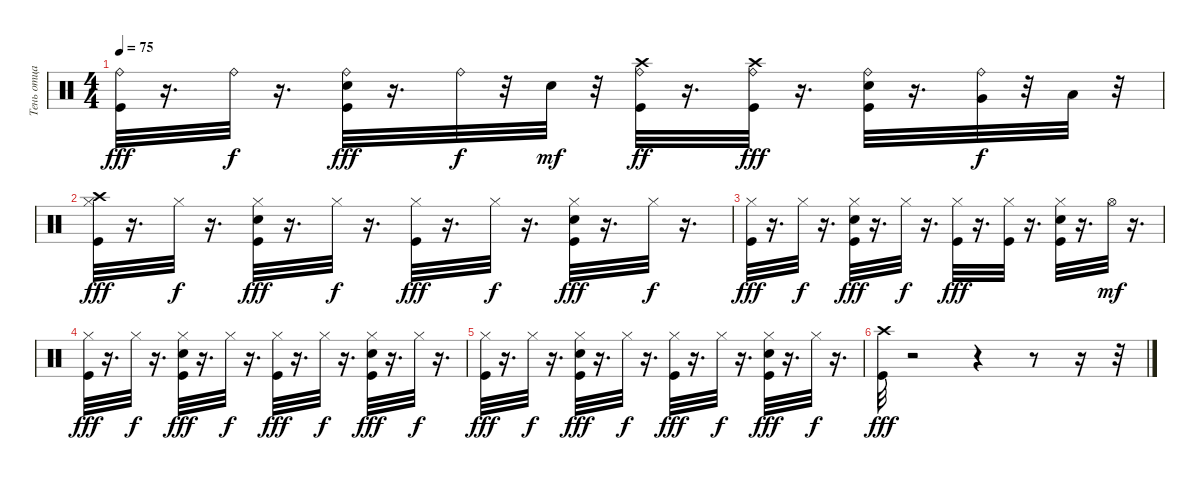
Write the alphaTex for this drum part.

\track ("Тень отца Гамлета" "Тень отца ") {instrument percussion}
\staff {score}
\articulation defaults
\ts (4 4)
\tempo 75
\clef neutral
\ks c
("Ride (bell)" "Kick (hit)").32{dy fff} r.16{d} "Ride (bell)".32{dy f} r.16{d} ("Snare (hit) 2" "Kick (hit)" "Ride (bell)").32{dy fff} r.16{d} "Ride (bell)".32{dy f} r.32 "Snare (hit) 2".32{dy mf} r.32 ("Ride (bell)" "Kick (hit)" "Crash high (hit)").32{dy ff} r.16{d} ("Kick (hit)" "Crash high (hit)" "Ride (bell)").32{dy fff} r.16{d} ("Kick (hit)" "Snare (hit) 2" "Ride (bell)").32 r.16{d} ("Very Low Tom (hit)" "Ride (bell)").32{dy f} r.32 "Low Floor Tom (hit)".32 r.32 |
("Hi-Hat (closed)" "Crash high (hit)" "Kick (hit)").32{dy fff} r.16{d} "Hi-Hat (closed)".32{dy f} r.16{d} ("Hi-Hat (closed)" "Snare (hit) 2" "Kick (hit)").32{dy fff} r.16{d} "Hi-Hat (closed)".32{dy f} r.16{d} ("Hi-Hat (closed)" "Kick (hit)").32{dy fff} r.16{d} "Hi-Hat (closed)".32{dy f} r.16{d} ("Hi-Hat (closed)" "Snare (hit) 2" "Kick (hit)").32{dy fff} r.16{d} "Hi-Hat (closed)".32{dy f} r.16{d} |
("Kick (hit)" "Hi-Hat (closed)").32{dy fff} r.16{d} "Hi-Hat (closed)".32{dy f} r.16{d} ("Snare (hit) 2" "Kick (hit)" "Hi-Hat (closed)").32{dy fff} r.16{d} "Hi-Hat (closed)".32{dy f} r.16{d} ("Kick (hit)" "Hi-Hat (closed)").32{dy fff} r.16{d} ("Kick (hit)" "Hi-Hat (closed)").32 r.16{d} ("Snare (hit) 2" "Kick (hit)" "Hi-Hat (closed)").32 r.16{d} "Hi-Hat (open)".32{dy mf} r.16{d} |
("Hi-Hat (closed)" "Kick (hit)").32{dy fff} r.16{d} "Hi-Hat (closed)".32{dy f} r.16{d} ("Hi-Hat (closed)" "Snare (hit) 2" "Kick (hit)").32{dy fff} r.16{d} "Hi-Hat (closed)".32{dy f} r.16{d} ("Hi-Hat (closed)" "Kick (hit)").32{dy fff} r.16{d} "Hi-Hat (closed)".32{dy f} r.16{d} ("Hi-Hat (closed)" "Snare (hit) 2" "Kick (hit)").32{dy fff} r.16{d} "Hi-Hat (closed)".32{dy f} r.16{d} |
("Kick (hit)" "Hi-Hat (closed)").32{dy fff} r.16{d} "Hi-Hat (closed)".32{dy f} r.16{d} ("Snare (hit) 2" "Kick (hit)" "Hi-Hat (closed)").32{dy fff} r.16{d} "Hi-Hat (closed)".32{dy f} r.16{d} ("Kick (hit)" "Hi-Hat (closed)").32{dy fff} r.16{d} "Hi-Hat (closed)".32{dy f} r.16{d} ("Snare (hit) 2" "Kick (hit)" "Hi-Hat (closed)").32{dy fff} r.16{d} "Hi-Hat (closed)".32{dy f} r.16{d} |
("Crash high (hit)" "Kick (hit)").32{dy fff} r.2 r.4 r.8 r.16 r.32
